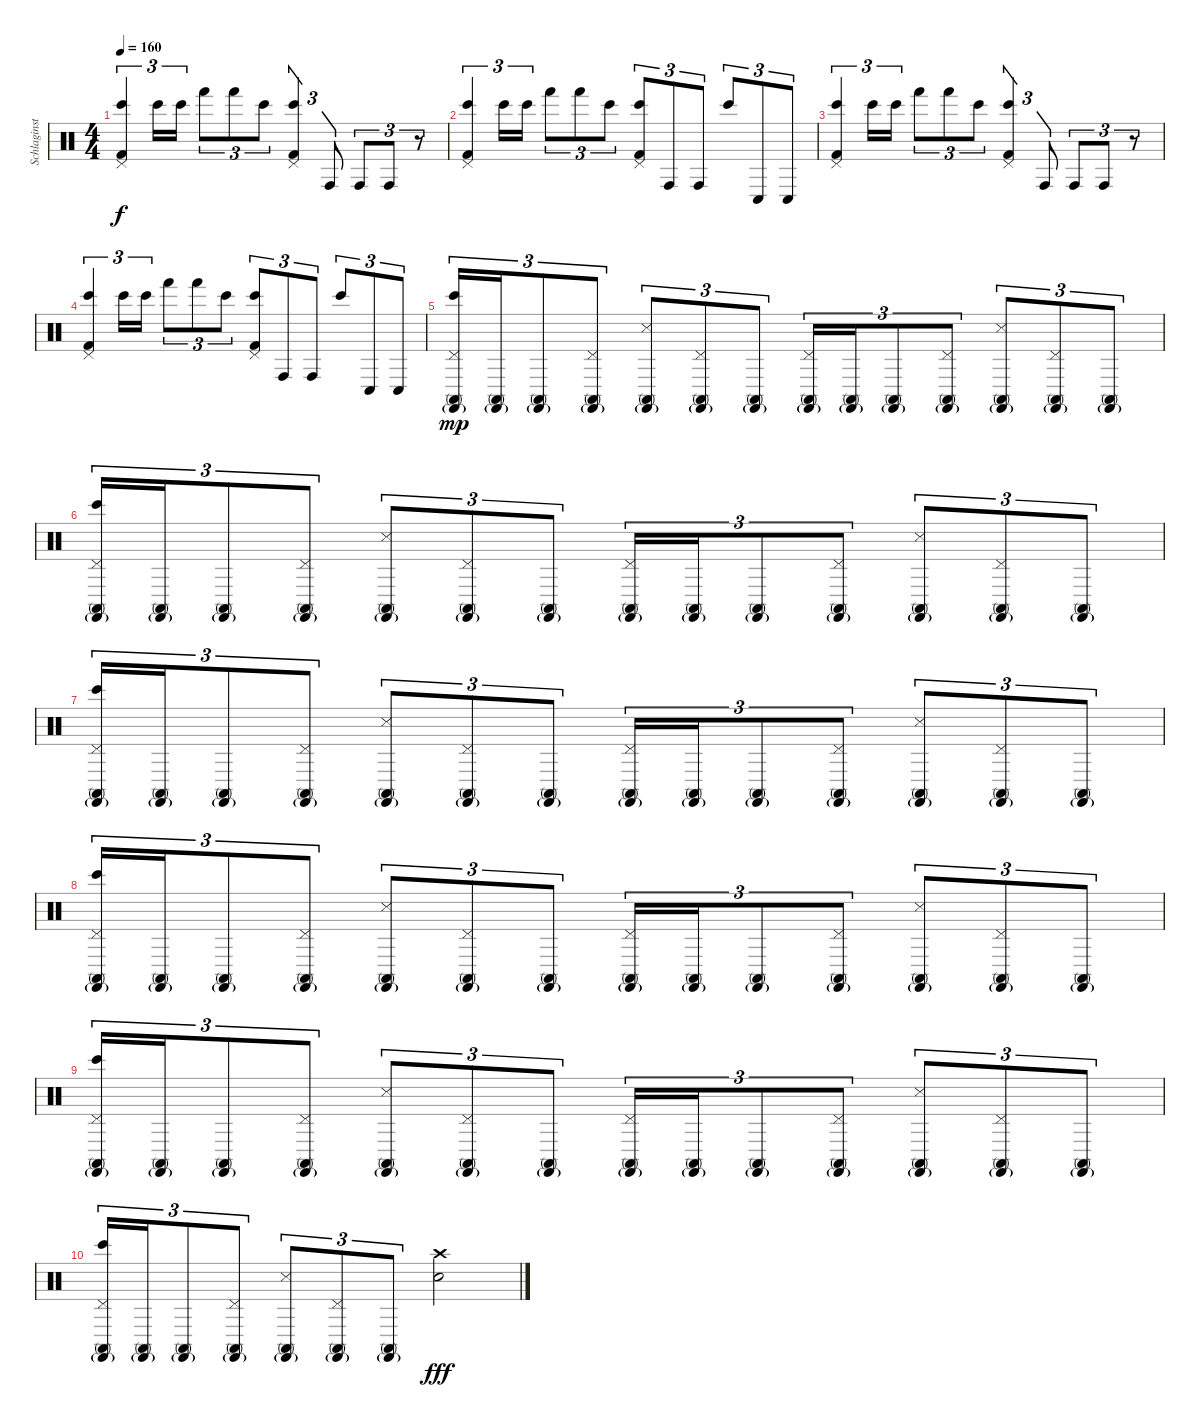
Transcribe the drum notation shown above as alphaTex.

\track ("Schlaginstrumente - Auswahl" "Schlaginst") {instrument percussion}
\staff {score}
\articulation defaults
\ts (4 4)
\tempo 160
\clef neutral
\ks c
("Pedal Hi-Hat (hit)" "Bongo High (hit)" "Kick (hit) 2").4{tu (3 2) dy f} "Bongo High (hit)".16{tu (3 2)} "Bongo High (hit)".16{tu (3 2)} "Hand (hit)".8{tu (3 2)} "Hand (hit)".8{tu (3 2)} "Bongo High (hit)".8{tu (3 2)} ("Pedal Hi-Hat (hit)" "Bongo High (hit)" "Kick (hit) 2").4{tu (3 2)} "Conga high (hit)".8{tu (3 2)} "Conga high (hit)".8{tu (3 2)} "Conga high (hit)".8{tu (3 2)} r.8{tu (3 2)} |
("Pedal Hi-Hat (hit)" "Bongo High (hit)" "Kick (hit) 2").4{tu (3 2)} "Bongo High (hit)".16{tu (3 2)} "Bongo High (hit)".16{tu (3 2)} "Hand (hit)".8{tu (3 2)} "Hand (hit)".8{tu (3 2)} "Bongo High (hit)".8{tu (3 2)} ("Pedal Hi-Hat (hit)" "Bongo High (hit)" "Kick (hit) 2").8{tu (3 2)} "Conga high (hit)".8{tu (3 2)} "Conga high (hit)".8{tu (3 2)} "Bongo High (hit)".8{tu (3 2)} "Conga low (hit)".8{tu (3 2)} "Conga low (hit)".8{tu (3 2)} |
("Pedal Hi-Hat (hit)" "Bongo High (hit)" "Kick (hit) 2").4{tu (3 2)} "Bongo High (hit)".16{tu (3 2)} "Bongo High (hit)".16{tu (3 2)} "Hand (hit)".8{tu (3 2)} "Hand (hit)".8{tu (3 2)} "Bongo High (hit)".8{tu (3 2)} ("Pedal Hi-Hat (hit)" "Bongo High (hit)" "Kick (hit) 2").4{tu (3 2)} "Conga high (hit)".8{tu (3 2)} "Conga high (hit)".8{tu (3 2)} "Conga high (hit)".8{tu (3 2)} r.8{tu (3 2)} |
("Pedal Hi-Hat (hit)" "Bongo High (hit)" "Kick (hit) 2").4{tu (3 2)} "Bongo High (hit)".16{tu (3 2)} "Bongo High (hit)".16{tu (3 2)} "Hand (hit)".8{tu (3 2)} "Hand (hit)".8{tu (3 2)} "Bongo High (hit)".8{tu (3 2)} ("Pedal Hi-Hat (hit)" "Bongo High (hit)" "Kick (hit) 2").8{tu (3 2)} "Conga high (hit)".8{tu (3 2)} "Conga high (hit)".8{tu (3 2)} "Bongo High (hit)".8{tu (3 2)} "Conga low (hit)".8{tu (3 2)} "Conga low (hit)".8{tu (3 2)} |
("Pedal Hi-Hat (hit)" "Castanets (hit)"{g} "Bongo High (hit)" "Conga high (mute)").16{tu (3 2) dy mp} ("Castanets (hit)"{g} "Conga high (mute)").16{tu (3 2)} ("Castanets (hit)"{g} "Conga high (mute)").8{tu (3 2)} ("Pedal Hi-Hat (hit)" "Castanets (hit)"{g} "Conga high (mute)").8{tu (3 2)} ("Castanets (hit)"{g} "Snare (side stick) 3" "Conga high (mute)").8{tu (3 2)} ("Pedal Hi-Hat (hit)" "Castanets (hit)"{g} "Conga high (mute)").8{tu (3 2)} ("Castanets (hit)"{g} "Conga high (mute)").8{tu (3 2)} ("Pedal Hi-Hat (hit)" "Castanets (hit)"{g} "Conga high (mute)").16{tu (3 2)} ("Castanets (hit)"{g} "Conga high (mute)").16{tu (3 2)} ("Castanets (hit)"{g} "Conga high (mute)").8{tu (3 2)} ("Pedal Hi-Hat (hit)" "Castanets (hit)"{g} "Conga high (mute)").8{tu (3 2)} ("Castanets (hit)"{g} "Snare (side stick) 3" "Conga high (mute)").8{tu (3 2)} ("Pedal Hi-Hat (hit)" "Castanets (hit)"{g} "Conga high (mute)").8{tu (3 2)} ("Castanets (hit)"{g} "Conga high (mute)").8{tu (3 2)} |
("Pedal Hi-Hat (hit)" "Castanets (hit)"{g} "Bongo High (hit)" "Conga high (mute)").16{tu (3 2)} ("Castanets (hit)"{g} "Conga high (mute)").16{tu (3 2)} ("Castanets (hit)"{g} "Conga high (mute)").8{tu (3 2)} ("Pedal Hi-Hat (hit)" "Castanets (hit)"{g} "Conga high (mute)").8{tu (3 2)} ("Castanets (hit)"{g} "Snare (side stick) 3" "Conga high (mute)").8{tu (3 2)} ("Pedal Hi-Hat (hit)" "Castanets (hit)"{g} "Conga high (mute)").8{tu (3 2)} ("Castanets (hit)"{g} "Conga high (mute)").8{tu (3 2)} ("Pedal Hi-Hat (hit)" "Castanets (hit)"{g} "Conga high (mute)").16{tu (3 2)} ("Castanets (hit)"{g} "Conga high (mute)").16{tu (3 2)} ("Castanets (hit)"{g} "Conga high (mute)").8{tu (3 2)} ("Pedal Hi-Hat (hit)" "Castanets (hit)"{g} "Conga high (mute)").8{tu (3 2)} ("Castanets (hit)"{g} "Snare (side stick) 3" "Conga high (mute)").8{tu (3 2)} ("Pedal Hi-Hat (hit)" "Castanets (hit)"{g} "Conga high (mute)").8{tu (3 2)} ("Castanets (hit)"{g} "Conga high (mute)").8{tu (3 2)} |
("Pedal Hi-Hat (hit)" "Castanets (hit)"{g} "Bongo High (hit)" "Conga high (mute)").16{tu (3 2)} ("Castanets (hit)"{g} "Conga high (mute)").16{tu (3 2)} ("Castanets (hit)"{g} "Conga high (mute)").8{tu (3 2)} ("Pedal Hi-Hat (hit)" "Castanets (hit)"{g} "Conga high (mute)").8{tu (3 2)} ("Castanets (hit)"{g} "Snare (side stick) 3" "Conga high (mute)").8{tu (3 2)} ("Pedal Hi-Hat (hit)" "Castanets (hit)"{g} "Conga high (mute)").8{tu (3 2)} ("Castanets (hit)"{g} "Conga high (mute)").8{tu (3 2)} ("Pedal Hi-Hat (hit)" "Castanets (hit)"{g} "Conga high (mute)").16{tu (3 2)} ("Castanets (hit)"{g} "Conga high (mute)").16{tu (3 2)} ("Castanets (hit)"{g} "Conga high (mute)").8{tu (3 2)} ("Pedal Hi-Hat (hit)" "Castanets (hit)"{g} "Conga high (mute)").8{tu (3 2)} ("Castanets (hit)"{g} "Snare (side stick) 3" "Conga high (mute)").8{tu (3 2)} ("Pedal Hi-Hat (hit)" "Castanets (hit)"{g} "Conga high (mute)").8{tu (3 2)} ("Castanets (hit)"{g} "Conga high (mute)").8{tu (3 2)} |
("Pedal Hi-Hat (hit)" "Castanets (hit)"{g} "Bongo High (hit)" "Conga high (mute)").16{tu (3 2)} ("Castanets (hit)"{g} "Conga high (mute)").16{tu (3 2)} ("Castanets (hit)"{g} "Conga high (mute)").8{tu (3 2)} ("Pedal Hi-Hat (hit)" "Castanets (hit)"{g} "Conga high (mute)").8{tu (3 2)} ("Castanets (hit)"{g} "Snare (side stick) 3" "Conga high (mute)").8{tu (3 2)} ("Pedal Hi-Hat (hit)" "Castanets (hit)"{g} "Conga high (mute)").8{tu (3 2)} ("Castanets (hit)"{g} "Conga high (mute)").8{tu (3 2)} ("Pedal Hi-Hat (hit)" "Castanets (hit)"{g} "Conga high (mute)").16{tu (3 2)} ("Castanets (hit)"{g} "Conga high (mute)").16{tu (3 2)} ("Castanets (hit)"{g} "Conga high (mute)").8{tu (3 2)} ("Pedal Hi-Hat (hit)" "Castanets (hit)"{g} "Conga high (mute)").8{tu (3 2)} ("Castanets (hit)"{g} "Snare (side stick) 3" "Conga high (mute)").8{tu (3 2)} ("Pedal Hi-Hat (hit)" "Castanets (hit)"{g} "Conga high (mute)").8{tu (3 2)} ("Castanets (hit)"{g} "Conga high (mute)").8{tu (3 2)} |
("Pedal Hi-Hat (hit)" "Castanets (hit)"{g} "Bongo High (hit)" "Conga high (mute)").16{tu (3 2)} ("Castanets (hit)"{g} "Conga high (mute)").16{tu (3 2)} ("Castanets (hit)"{g} "Conga high (mute)").8{tu (3 2)} ("Pedal Hi-Hat (hit)" "Castanets (hit)"{g} "Conga high (mute)").8{tu (3 2)} ("Castanets (hit)"{g} "Snare (side stick) 3" "Conga high (mute)").8{tu (3 2)} ("Pedal Hi-Hat (hit)" "Castanets (hit)"{g} "Conga high (mute)").8{tu (3 2)} ("Castanets (hit)"{g} "Conga high (mute)").8{tu (3 2)} ("Pedal Hi-Hat (hit)" "Castanets (hit)"{g} "Conga high (mute)").16{tu (3 2)} ("Castanets (hit)"{g} "Conga high (mute)").16{tu (3 2)} ("Castanets (hit)"{g} "Conga high (mute)").8{tu (3 2)} ("Pedal Hi-Hat (hit)" "Castanets (hit)"{g} "Conga high (mute)").8{tu (3 2)} ("Castanets (hit)"{g} "Snare (side stick) 3" "Conga high (mute)").8{tu (3 2)} ("Pedal Hi-Hat (hit)" "Castanets (hit)"{g} "Conga high (mute)").8{tu (3 2)} ("Castanets (hit)"{g} "Conga high (mute)").8{tu (3 2)} |
("Pedal Hi-Hat (hit)" "Castanets (hit)"{g} "Bongo High (hit)" "Conga high (mute)").16{tu (3 2)} ("Castanets (hit)"{g} "Conga high (mute)").16{tu (3 2)} ("Castanets (hit)"{g} "Conga high (mute)").8{tu (3 2)} ("Pedal Hi-Hat (hit)" "Castanets (hit)"{g} "Conga high (mute)").8{tu (3 2)} ("Castanets (hit)"{g} "Snare (side stick) 3" "Conga high (mute)").8{tu (3 2)} ("Pedal Hi-Hat (hit)" "Castanets (hit)"{g} "Conga high (mute)").8{tu (3 2)} ("Castanets (hit)"{g} "Conga high (mute)").8{tu (3 2)} ("Crash high (hit)" "Electric Snare (hit)").2{dy fff}
